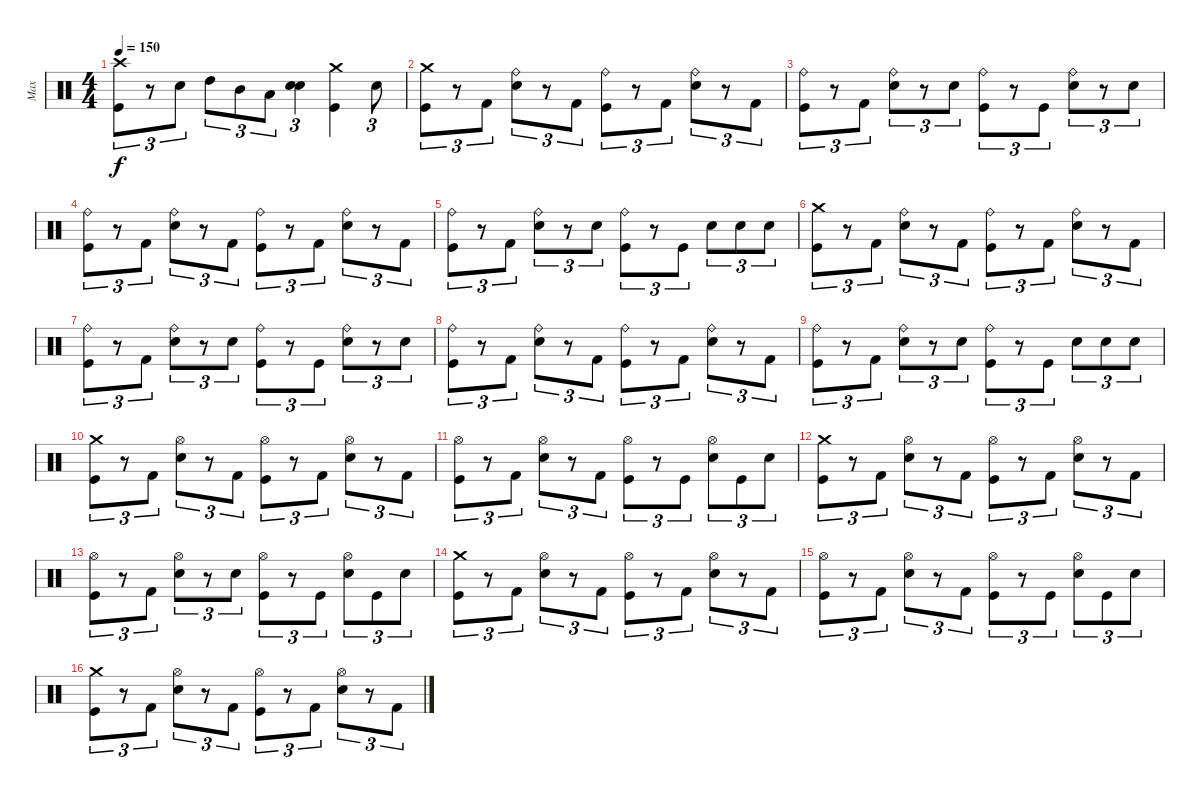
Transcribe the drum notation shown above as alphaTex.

\track ("Max" "Max") {instrument percussion}
\staff {score}
\articulation defaults
\ts (4 4)
\tempo 150
\clef neutral
\ks c
("Crash high (hit)" "Kick (hit)").8{tu (3 2) dy f} r.8{tu (3 2)} "Electric Snare (hit)".8{tu (3 2)} "High Tom (hit)".8{tu (3 2)} "Mid Tom (hit)".8{tu (3 2)} "Low Tom (hit)".8{tu (3 2)} ("Electric Snare (hit)" "Electric Snare (hit)").4{tu (3 2) bd 480} ("Crash medium (hit)" "Kick (hit)").4 "Electric Snare (hit)".8{tu (3 2)} |
("Crash medium (hit)" "Kick (hit)").8{tu (3 2)} r.8{tu (3 2)} "Kick (hit) 2".8{tu (3 2)} ("Ride (bell)" "Electric Snare (hit)").8{tu (3 2)} r.8{tu (3 2)} "Kick (hit) 2".8{tu (3 2)} ("Ride (bell)" "Kick (hit)").8{tu (3 2)} r.8{tu (3 2)} "Kick (hit) 2".8{tu (3 2)} ("Ride (bell)" "Electric Snare (hit)").8{tu (3 2)} r.8{tu (3 2)} "Kick (hit) 2".8{tu (3 2)} |
("Ride (bell)" "Kick (hit)").8{tu (3 2)} r.8{tu (3 2)} "Kick (hit) 2".8{tu (3 2)} ("Ride (bell)" "Electric Snare (hit)").8{tu (3 2)} r.8{tu (3 2)} "Electric Snare (hit)".8{tu (3 2)} ("Ride (bell)" "Kick (hit)").8{tu (3 2)} r.8{tu (3 2)} "Kick (hit)".8{tu (3 2)} ("Ride (bell)" "Electric Snare (hit)").8{tu (3 2)} r.8{tu (3 2)} "Electric Snare (hit)".8{tu (3 2)} |
("Ride (bell)" "Kick (hit)").8{tu (3 2)} r.8{tu (3 2)} "Kick (hit) 2".8{tu (3 2)} ("Ride (bell)" "Electric Snare (hit)").8{tu (3 2)} r.8{tu (3 2)} "Kick (hit) 2".8{tu (3 2)} ("Ride (bell)" "Kick (hit)").8{tu (3 2)} r.8{tu (3 2)} "Kick (hit) 2".8{tu (3 2)} ("Ride (bell)" "Electric Snare (hit)").8{tu (3 2)} r.8{tu (3 2)} "Kick (hit) 2".8{tu (3 2)} |
("Ride (bell)" "Kick (hit)").8{tu (3 2)} r.8{tu (3 2)} "Kick (hit) 2".8{tu (3 2)} ("Ride (bell)" "Electric Snare (hit)").8{tu (3 2)} r.8{tu (3 2)} "Electric Snare (hit)".8{tu (3 2)} ("Ride (bell)" "Kick (hit)").8{tu (3 2)} r.8{tu (3 2)} "Kick (hit)".8{tu (3 2)} "Electric Snare (hit)".8{tu (3 2)} "Electric Snare (hit)".8{tu (3 2)} "Electric Snare (hit)".8{tu (3 2)} |
("Crash medium (hit)" "Kick (hit)").8{tu (3 2)} r.8{tu (3 2)} "Kick (hit) 2".8{tu (3 2)} ("Ride (bell)" "Electric Snare (hit)").8{tu (3 2)} r.8{tu (3 2)} "Kick (hit) 2".8{tu (3 2)} ("Ride (bell)" "Kick (hit)").8{tu (3 2)} r.8{tu (3 2)} "Kick (hit) 2".8{tu (3 2)} ("Ride (bell)" "Electric Snare (hit)").8{tu (3 2)} r.8{tu (3 2)} "Kick (hit) 2".8{tu (3 2)} |
("Ride (bell)" "Kick (hit)").8{tu (3 2)} r.8{tu (3 2)} "Kick (hit) 2".8{tu (3 2)} ("Ride (bell)" "Electric Snare (hit)").8{tu (3 2)} r.8{tu (3 2)} "Electric Snare (hit)".8{tu (3 2)} ("Ride (bell)" "Kick (hit)").8{tu (3 2)} r.8{tu (3 2)} "Kick (hit)".8{tu (3 2)} ("Ride (bell)" "Electric Snare (hit)").8{tu (3 2)} r.8{tu (3 2)} "Electric Snare (hit)".8{tu (3 2)} |
("Ride (bell)" "Kick (hit)").8{tu (3 2)} r.8{tu (3 2)} "Kick (hit) 2".8{tu (3 2)} ("Ride (bell)" "Electric Snare (hit)").8{tu (3 2)} r.8{tu (3 2)} "Kick (hit) 2".8{tu (3 2)} ("Ride (bell)" "Kick (hit)").8{tu (3 2)} r.8{tu (3 2)} "Kick (hit) 2".8{tu (3 2)} ("Ride (bell)" "Electric Snare (hit)").8{tu (3 2)} r.8{tu (3 2)} "Kick (hit) 2".8{tu (3 2)} |
("Ride (bell)" "Kick (hit)").8{tu (3 2)} r.8{tu (3 2)} "Kick (hit) 2".8{tu (3 2)} ("Ride (bell)" "Electric Snare (hit)").8{tu (3 2)} r.8{tu (3 2)} "Electric Snare (hit)".8{tu (3 2)} ("Ride (bell)" "Kick (hit)").8{tu (3 2)} r.8{tu (3 2)} "Kick (hit)".8{tu (3 2)} "Electric Snare (hit)".8{tu (3 2)} "Electric Snare (hit)".8{tu (3 2)} "Electric Snare (hit)".8{tu (3 2)} |
("Crash medium (hit)" "Kick (hit)").8{tu (3 2)} r.8{tu (3 2)} "Kick (hit) 2".8{tu (3 2)} ("Hi-Hat (open)" "Electric Snare (hit)").8{tu (3 2)} r.8{tu (3 2)} "Kick (hit) 2".8{tu (3 2)} ("Hi-Hat (open)" "Kick (hit)").8{tu (3 2)} r.8{tu (3 2)} "Kick (hit) 2".8{tu (3 2)} ("Hi-Hat (open)" "Electric Snare (hit)").8{tu (3 2)} r.8{tu (3 2)} "Kick (hit) 2".8{tu (3 2)} |
("Hi-Hat (open)" "Kick (hit)").8{tu (3 2)} r.8{tu (3 2)} "Kick (hit) 2".8{tu (3 2)} ("Hi-Hat (open)" "Electric Snare (hit)").8{tu (3 2)} r.8{tu (3 2)} "Kick (hit) 2".8{tu (3 2)} ("Hi-Hat (open)" "Kick (hit)").8{tu (3 2)} r.8{tu (3 2)} "Kick (hit)".8{tu (3 2)} ("Hi-Hat (open)" "Electric Snare (hit)").8{tu (3 2)} "Kick (hit)".8{tu (3 2)} "Electric Snare (hit)".8{tu (3 2)} |
("Crash medium (hit)" "Kick (hit)").8{tu (3 2)} r.8{tu (3 2)} "Kick (hit) 2".8{tu (3 2)} ("Hi-Hat (open)" "Electric Snare (hit)").8{tu (3 2)} r.8{tu (3 2)} "Kick (hit) 2".8{tu (3 2)} ("Hi-Hat (open)" "Kick (hit)").8{tu (3 2)} r.8{tu (3 2)} "Kick (hit) 2".8{tu (3 2)} ("Hi-Hat (open)" "Electric Snare (hit)").8{tu (3 2)} r.8{tu (3 2)} "Kick (hit) 2".8{tu (3 2)} |
("Hi-Hat (open)" "Kick (hit)").8{tu (3 2)} r.8{tu (3 2)} "Kick (hit) 2".8{tu (3 2)} ("Hi-Hat (open)" "Electric Snare (hit)").8{tu (3 2)} r.8{tu (3 2)} "Electric Snare (hit)".8{tu (3 2)} ("Hi-Hat (open)" "Kick (hit)").8{tu (3 2)} r.8{tu (3 2)} "Kick (hit)".8{tu (3 2)} ("Hi-Hat (open)" "Electric Snare (hit)").8{tu (3 2)} "Kick (hit)".8{tu (3 2)} "Electric Snare (hit)".8{tu (3 2)} |
("Crash medium (hit)" "Kick (hit)").8{tu (3 2)} r.8{tu (3 2)} "Kick (hit) 2".8{tu (3 2)} ("Hi-Hat (open)" "Electric Snare (hit)").8{tu (3 2)} r.8{tu (3 2)} "Kick (hit) 2".8{tu (3 2)} ("Hi-Hat (open)" "Kick (hit)").8{tu (3 2)} r.8{tu (3 2)} "Kick (hit) 2".8{tu (3 2)} ("Hi-Hat (open)" "Electric Snare (hit)").8{tu (3 2)} r.8{tu (3 2)} "Kick (hit) 2".8{tu (3 2)} |
("Hi-Hat (open)" "Kick (hit)").8{tu (3 2)} r.8{tu (3 2)} "Kick (hit) 2".8{tu (3 2)} ("Hi-Hat (open)" "Electric Snare (hit)").8{tu (3 2)} r.8{tu (3 2)} "Kick (hit) 2".8{tu (3 2)} ("Hi-Hat (open)" "Kick (hit)").8{tu (3 2)} r.8{tu (3 2)} "Kick (hit)".8{tu (3 2)} ("Hi-Hat (open)" "Electric Snare (hit)").8{tu (3 2)} "Kick (hit)".8{tu (3 2)} "Electric Snare (hit)".8{tu (3 2)} |
("Crash medium (hit)" "Kick (hit)").8{tu (3 2)} r.8{tu (3 2)} "Kick (hit) 2".8{tu (3 2)} ("Hi-Hat (open)" "Electric Snare (hit)").8{tu (3 2)} r.8{tu (3 2)} "Kick (hit) 2".8{tu (3 2)} ("Hi-Hat (open)" "Kick (hit)").8{tu (3 2)} r.8{tu (3 2)} "Kick (hit) 2".8{tu (3 2)} ("Hi-Hat (open)" "Electric Snare (hit)").8{tu (3 2)} r.8{tu (3 2)} "Kick (hit) 2".8{tu (3 2)}
